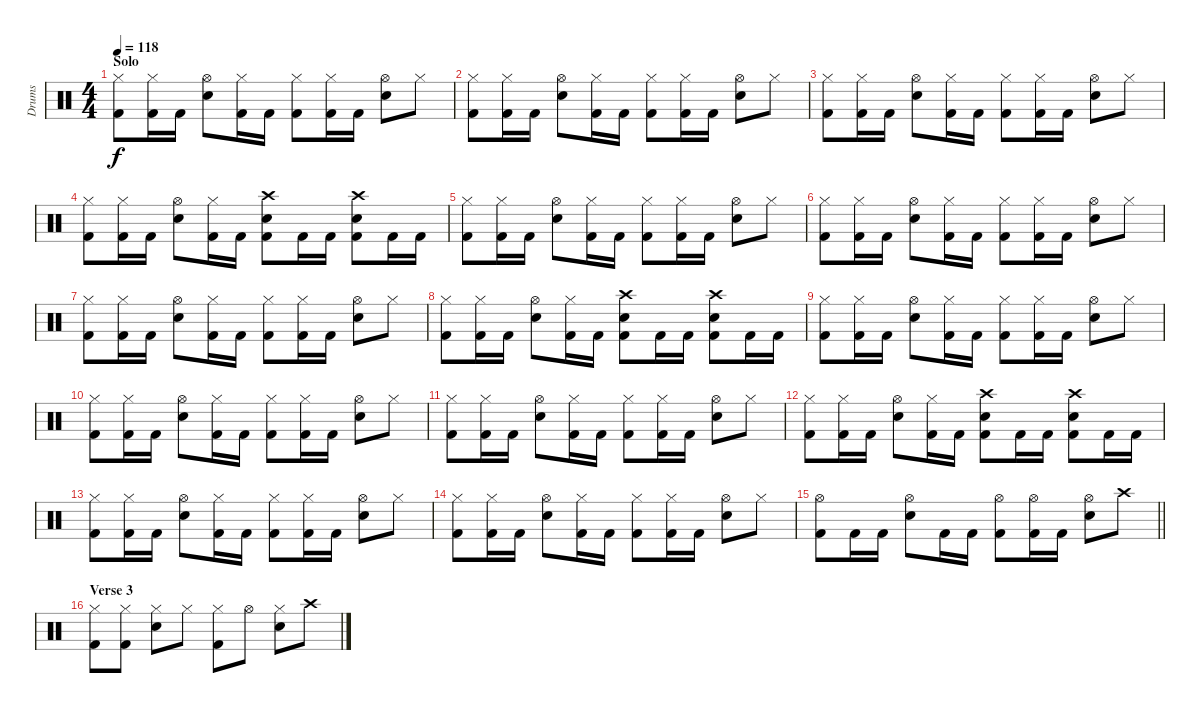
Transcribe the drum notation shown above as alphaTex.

\track ("Drums" "Drums") {instrument percussion}
\staff {score}
\articulation defaults
\ts (4 4)
\section ("" "Solo")
\tempo 118
\clef neutral
\ks c
("Hi-Hat (closed)" "Kick (hit) 2").8{dy f} ("Hi-Hat (closed)" "Kick (hit) 2").16 "Kick (hit) 2".16 ("Hi-Hat (open)" "Snare (hit) 2").8 ("Hi-Hat (closed)" "Kick (hit) 2").16 "Kick (hit) 2".16 ("Hi-Hat (closed)" "Kick (hit) 2").8 ("Hi-Hat (closed)" "Kick (hit) 2").16 "Kick (hit) 2".16 ("Hi-Hat (open)" "Snare (hit) 2").8 "Hi-Hat (closed)".8 |
("Hi-Hat (closed)" "Kick (hit) 2").8 ("Hi-Hat (closed)" "Kick (hit) 2").16 "Kick (hit) 2".16 ("Hi-Hat (open)" "Snare (hit) 2").8 ("Hi-Hat (closed)" "Kick (hit) 2").16 "Kick (hit) 2".16 ("Hi-Hat (closed)" "Kick (hit) 2").8 ("Hi-Hat (closed)" "Kick (hit) 2").16 "Kick (hit) 2".16 ("Hi-Hat (open)" "Snare (hit) 2").8 "Hi-Hat (closed)".8 |
("Hi-Hat (closed)" "Kick (hit) 2").8 ("Hi-Hat (closed)" "Kick (hit) 2").16 "Kick (hit) 2".16 ("Hi-Hat (open)" "Snare (hit) 2").8 ("Hi-Hat (closed)" "Kick (hit) 2").16 "Kick (hit) 2".16 ("Hi-Hat (closed)" "Kick (hit) 2").8 ("Hi-Hat (closed)" "Kick (hit) 2").16 "Kick (hit) 2".16 ("Hi-Hat (open)" "Snare (hit) 2").8 "Hi-Hat (closed)".8 |
("Hi-Hat (closed)" "Kick (hit) 2").8 ("Hi-Hat (closed)" "Kick (hit) 2").16 "Kick (hit) 2".16 ("Hi-Hat (open)" "Snare (hit) 2").8 ("Hi-Hat (closed)" "Kick (hit) 2").16 "Kick (hit) 2".16 ("Crash high (hit)" "Kick (hit) 2" "Snare (hit) 2").8 "Kick (hit) 2".16 "Kick (hit) 2".16 ("Crash high (hit)" "Kick (hit) 2" "Snare (hit) 2").8 "Kick (hit) 2".16 "Kick (hit) 2".16 |
("Hi-Hat (closed)" "Kick (hit) 2").8 ("Hi-Hat (closed)" "Kick (hit) 2").16 "Kick (hit) 2".16 ("Hi-Hat (open)" "Snare (hit) 2").8 ("Hi-Hat (closed)" "Kick (hit) 2").16 "Kick (hit) 2".16 ("Hi-Hat (closed)" "Kick (hit) 2").8 ("Hi-Hat (closed)" "Kick (hit) 2").16 "Kick (hit) 2".16 ("Hi-Hat (open)" "Snare (hit) 2").8 "Hi-Hat (closed)".8 |
("Hi-Hat (closed)" "Kick (hit) 2").8 ("Hi-Hat (closed)" "Kick (hit) 2").16 "Kick (hit) 2".16 ("Hi-Hat (open)" "Snare (hit) 2").8 ("Hi-Hat (closed)" "Kick (hit) 2").16 "Kick (hit) 2".16 ("Hi-Hat (closed)" "Kick (hit) 2").8 ("Hi-Hat (closed)" "Kick (hit) 2").16 "Kick (hit) 2".16 ("Hi-Hat (open)" "Snare (hit) 2").8 "Hi-Hat (closed)".8 |
("Hi-Hat (closed)" "Kick (hit) 2").8 ("Hi-Hat (closed)" "Kick (hit) 2").16 "Kick (hit) 2".16 ("Hi-Hat (open)" "Snare (hit) 2").8 ("Hi-Hat (closed)" "Kick (hit) 2").16 "Kick (hit) 2".16 ("Hi-Hat (closed)" "Kick (hit) 2").8 ("Hi-Hat (closed)" "Kick (hit) 2").16 "Kick (hit) 2".16 ("Hi-Hat (open)" "Snare (hit) 2").8 "Hi-Hat (closed)".8 |
("Hi-Hat (closed)" "Kick (hit) 2").8 ("Hi-Hat (closed)" "Kick (hit) 2").16 "Kick (hit) 2".16 ("Hi-Hat (open)" "Snare (hit) 2").8 ("Hi-Hat (closed)" "Kick (hit) 2").16 "Kick (hit) 2".16 ("Crash high (hit)" "Kick (hit) 2" "Snare (hit) 2").8 "Kick (hit) 2".16 "Kick (hit) 2".16 ("Crash high (hit)" "Kick (hit) 2" "Snare (hit) 2").8 "Kick (hit) 2".16 "Kick (hit) 2".16 |
("Hi-Hat (closed)" "Kick (hit) 2").8 ("Hi-Hat (closed)" "Kick (hit) 2").16 "Kick (hit) 2".16 ("Hi-Hat (open)" "Snare (hit) 2").8 ("Hi-Hat (closed)" "Kick (hit) 2").16 "Kick (hit) 2".16 ("Hi-Hat (closed)" "Kick (hit) 2").8 ("Hi-Hat (closed)" "Kick (hit) 2").16 "Kick (hit) 2".16 ("Hi-Hat (open)" "Snare (hit) 2").8 "Hi-Hat (closed)".8 |
("Hi-Hat (closed)" "Kick (hit) 2").8 ("Hi-Hat (closed)" "Kick (hit) 2").16 "Kick (hit) 2".16 ("Hi-Hat (open)" "Snare (hit) 2").8 ("Hi-Hat (closed)" "Kick (hit) 2").16 "Kick (hit) 2".16 ("Hi-Hat (closed)" "Kick (hit) 2").8 ("Hi-Hat (closed)" "Kick (hit) 2").16 "Kick (hit) 2".16 ("Hi-Hat (open)" "Snare (hit) 2").8 "Hi-Hat (closed)".8 |
("Hi-Hat (closed)" "Kick (hit) 2").8 ("Hi-Hat (closed)" "Kick (hit) 2").16 "Kick (hit) 2".16 ("Hi-Hat (open)" "Snare (hit) 2").8 ("Hi-Hat (closed)" "Kick (hit) 2").16 "Kick (hit) 2".16 ("Hi-Hat (closed)" "Kick (hit) 2").8 ("Hi-Hat (closed)" "Kick (hit) 2").16 "Kick (hit) 2".16 ("Hi-Hat (open)" "Snare (hit) 2").8 "Hi-Hat (closed)".8 |
("Hi-Hat (closed)" "Kick (hit) 2").8 ("Hi-Hat (closed)" "Kick (hit) 2").16 "Kick (hit) 2".16 ("Hi-Hat (open)" "Snare (hit) 2").8 ("Hi-Hat (closed)" "Kick (hit) 2").16 "Kick (hit) 2".16 ("Crash high (hit)" "Kick (hit) 2" "Snare (hit) 2").8 "Kick (hit) 2".16 "Kick (hit) 2".16 ("Crash high (hit)" "Kick (hit) 2" "Snare (hit) 2").8 "Kick (hit) 2".16 "Kick (hit) 2".16 |
("Hi-Hat (closed)" "Kick (hit) 2").8 ("Hi-Hat (closed)" "Kick (hit) 2").16 "Kick (hit) 2".16 ("Hi-Hat (open)" "Snare (hit) 2").8 ("Hi-Hat (closed)" "Kick (hit) 2").16 "Kick (hit) 2".16 ("Hi-Hat (closed)" "Kick (hit) 2").8 ("Hi-Hat (closed)" "Kick (hit) 2").16 "Kick (hit) 2".16 ("Hi-Hat (open)" "Snare (hit) 2").8 "Hi-Hat (closed)".8 |
("Hi-Hat (closed)" "Kick (hit) 2").8 ("Hi-Hat (closed)" "Kick (hit) 2").16 "Kick (hit) 2".16 ("Hi-Hat (open)" "Snare (hit) 2").8 ("Hi-Hat (closed)" "Kick (hit) 2").16 "Kick (hit) 2".16 ("Hi-Hat (closed)" "Kick (hit) 2").8 ("Hi-Hat (closed)" "Kick (hit) 2").16 "Kick (hit) 2".16 ("Hi-Hat (open)" "Snare (hit) 2").8 "Hi-Hat (closed)".8 |
\barLineRight lightlight
("Hi-Hat (open)" "Kick (hit) 2").8 "Kick (hit) 2".16 "Kick (hit) 2".16 ("Hi-Hat (open)" "Snare (hit) 2").8 "Kick (hit) 2".16 "Kick (hit) 2".16 ("Hi-Hat (open)" "Kick (hit) 2").8 ("Hi-Hat (open)" "Kick (hit) 2").16 "Kick (hit) 2".16 ("Hi-Hat (open)" "Snare (hit) 2").8 "Crash high (hit)".8 |
\section ("" "Verse 3")
("Hi-Hat (closed)" "Kick (hit) 2").8 ("Hi-Hat (closed)" "Kick (hit) 2").8 ("Hi-Hat (closed)" "Snare (hit) 2").8 "Hi-Hat (closed)".8 ("Hi-Hat (closed)" "Kick (hit) 2").8 "Hi-Hat (open)".8 ("Hi-Hat (closed)" "Snare (hit) 2").8 "Crash high (hit)".8
